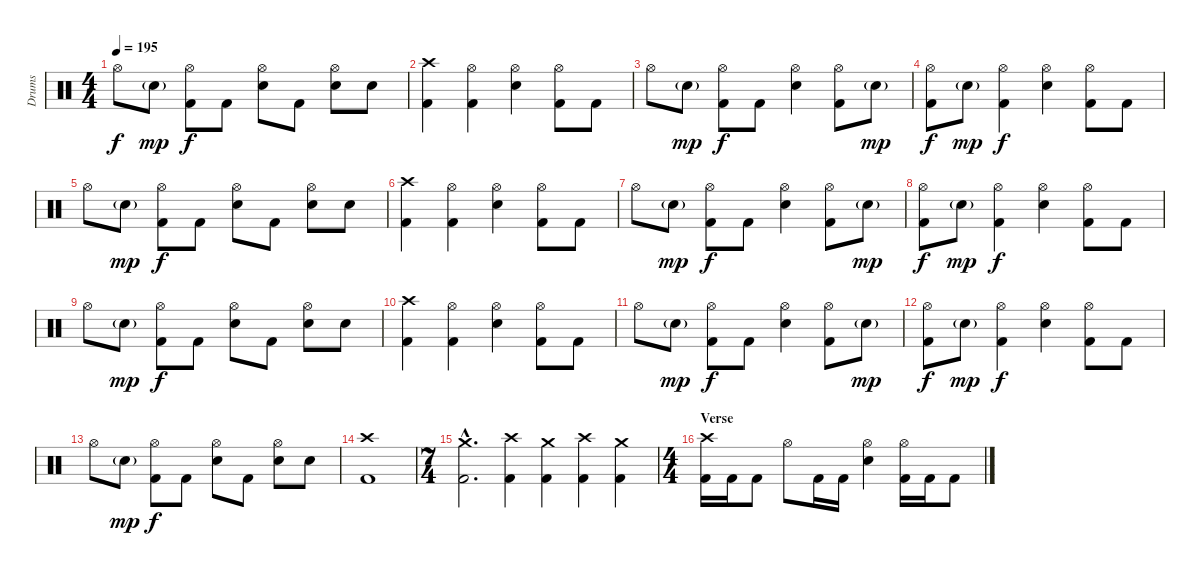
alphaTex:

\track ("Drums" "Drums") {instrument percussion}
\staff {score}
\articulation defaults
\ts (4 4)
\tempo 195
\clef neutral
\ks c "Hi-Hat (open)".8{dy f} "Electric Snare (hit)"{g}.8{dy mp}
("Hi-Hat (open)" "Kick (hit) 2").8{dy f} "Kick (hit) 2".8 ("Hi-Hat (open)" "Electric Snare (hit)").8 "Kick (hit) 2".8 ("Hi-Hat (open)" "Electric Snare (hit)").8 "Electric Snare (hit)".8 |
("Crash high (hit)" "Kick (hit) 2").4 ("Hi-Hat (open)" "Kick (hit) 2").4 ("Hi-Hat (open)" "Electric Snare (hit)").4 ("Hi-Hat (open)" "Kick (hit) 2").8 "Kick (hit) 2".8 |
"Hi-Hat (open)".8 "Electric Snare (hit)"{g}.8{dy mp} ("Hi-Hat (open)" "Kick (hit) 2").8{dy f} "Kick (hit) 2".8 ("Hi-Hat (open)" "Electric Snare (hit)").4 ("Hi-Hat (open)" "Kick (hit) 2").8 "Electric Snare (hit)"{g}.8{dy mp} |
("Hi-Hat (open)" "Kick (hit) 2").8{dy f} "Electric Snare (hit)"{g}.8{dy mp} ("Hi-Hat (open)" "Kick (hit) 2").4{dy f} ("Hi-Hat (open)" "Electric Snare (hit)").4 ("Hi-Hat (open)" "Kick (hit) 2").8 "Kick (hit) 2".8 |
"Hi-Hat (open)".8 "Electric Snare (hit)"{g}.8{dy mp} ("Hi-Hat (open)" "Kick (hit) 2").8{dy f} "Kick (hit) 2".8 ("Hi-Hat (open)" "Electric Snare (hit)").8 "Kick (hit) 2".8 ("Hi-Hat (open)" "Electric Snare (hit)").8 "Electric Snare (hit)".8 |
("Crash high (hit)" "Kick (hit) 2").4 ("Hi-Hat (open)" "Kick (hit) 2").4 ("Hi-Hat (open)" "Electric Snare (hit)").4 ("Hi-Hat (open)" "Kick (hit) 2").8 "Kick (hit) 2".8 |
"Hi-Hat (open)".8 "Electric Snare (hit)"{g}.8{dy mp} ("Hi-Hat (open)" "Kick (hit) 2").8{dy f} "Kick (hit) 2".8 ("Hi-Hat (open)" "Electric Snare (hit)").4 ("Hi-Hat (open)" "Kick (hit) 2").8 "Electric Snare (hit)"{g}.8{dy mp} |
("Hi-Hat (open)" "Kick (hit) 2").8{dy f} "Electric Snare (hit)"{g}.8{dy mp} ("Hi-Hat (open)" "Kick (hit) 2").4{dy f} ("Hi-Hat (open)" "Electric Snare (hit)").4 ("Hi-Hat (open)" "Kick (hit) 2").8 "Kick (hit) 2".8 |
"Hi-Hat (open)".8 "Electric Snare (hit)"{g}.8{dy mp} ("Hi-Hat (open)" "Kick (hit) 2").8{dy f} "Kick (hit) 2".8 ("Hi-Hat (open)" "Electric Snare (hit)").8 "Kick (hit) 2".8 ("Hi-Hat (open)" "Electric Snare (hit)").8 "Electric Snare (hit)".8 |
("Crash high (hit)" "Kick (hit) 2").4 ("Hi-Hat (open)" "Kick (hit) 2").4 ("Hi-Hat (open)" "Electric Snare (hit)").4 ("Hi-Hat (open)" "Kick (hit) 2").8 "Kick (hit) 2".8 |
"Hi-Hat (open)".8 "Electric Snare (hit)"{g}.8{dy mp} ("Hi-Hat (open)" "Kick (hit) 2").8{dy f} "Kick (hit) 2".8 ("Hi-Hat (open)" "Electric Snare (hit)").4 ("Hi-Hat (open)" "Kick (hit) 2").8 "Electric Snare (hit)"{g}.8{dy mp} |
("Hi-Hat (open)" "Kick (hit) 2").8{dy f} "Electric Snare (hit)"{g}.8{dy mp} ("Hi-Hat (open)" "Kick (hit) 2").4{dy f} ("Hi-Hat (open)" "Electric Snare (hit)").4 ("Hi-Hat (open)" "Kick (hit) 2").8 "Kick (hit) 2".8 |
"Hi-Hat (open)".8 "Electric Snare (hit)"{g}.8{dy mp} ("Hi-Hat (open)" "Kick (hit) 2").8{dy f} "Kick (hit) 2".8 ("Hi-Hat (open)" "Electric Snare (hit)").8 "Kick (hit) 2".8 ("Hi-Hat (open)" "Electric Snare (hit)").8 "Electric Snare (hit)".8 |
("Crash high (hit)" "Kick (hit) 2").1 |
\ts (7 4)
("Crash medium (hit)"{hac} "Kick (hit) 2"{hac}).2{d} ("Crash high (hit)" "Kick (hit) 2").4 ("Crash medium (hit)" "Kick (hit) 2").4 ("Crash high (hit)" "Kick (hit) 2").4 ("Crash medium (hit)" "Kick (hit) 2").4 |
\ts (4 4)
\section ("" "Verse")
("Crash high (hit)" "Kick (hit) 2").16 "Kick (hit) 2".16 "Kick (hit) 2".8 "Hi-Hat (open)".8 "Kick (hit) 2".16 "Kick (hit) 2".16 ("Hi-Hat (open)" "Electric Snare (hit)").4 ("Hi-Hat (open)" "Kick (hit) 2").16 "Kick (hit) 2".16 "Kick (hit) 2".8
